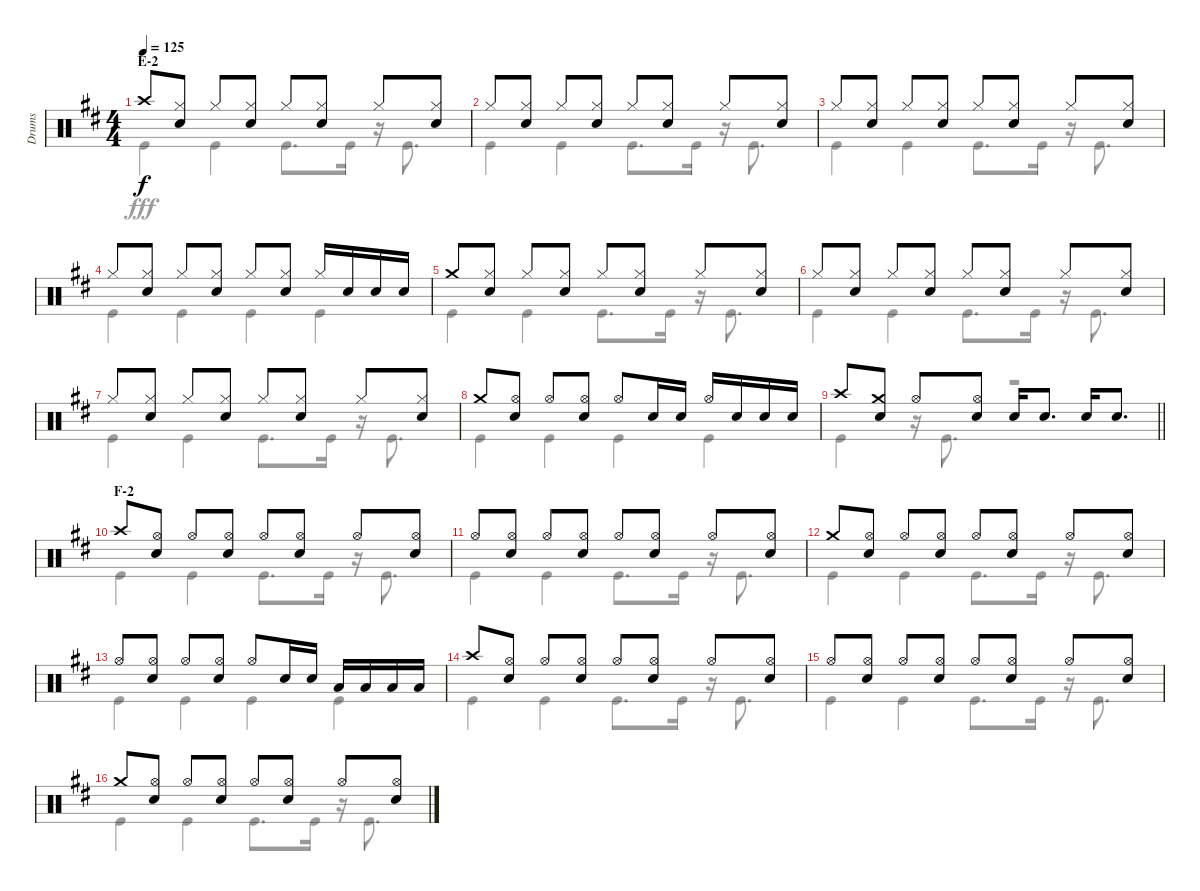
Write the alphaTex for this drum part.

\track ("Drums" "Drums") {instrument percussion}
\staff {score}
\articulation defaults
\voice
\ts (4 4)
\section ("" "E-2")
\tempo 125
\clef neutral
\ks d "Crash high (hit)".8{dy f}
("Hi-Hat (closed)" "Snare (hit) 2").8 "Hi-Hat (closed)".8 ("Hi-Hat (closed)" "Snare (hit) 2").8 "Hi-Hat (closed)".8 ("Hi-Hat (closed)" "Snare (hit) 2").8 "Hi-Hat (closed)".8 ("Hi-Hat (closed)" "Snare (hit) 2").8 |
"Hi-Hat (closed)".8 ("Hi-Hat (closed)" "Snare (hit) 2").8 "Hi-Hat (closed)".8 ("Hi-Hat (closed)" "Snare (hit) 2").8 "Hi-Hat (closed)".8 ("Hi-Hat (closed)" "Snare (hit) 2").8 "Hi-Hat (closed)".8 ("Hi-Hat (closed)" "Snare (hit) 2").8 |
"Hi-Hat (closed)".8 ("Hi-Hat (closed)" "Snare (hit) 2").8 "Hi-Hat (closed)".8 ("Hi-Hat (closed)" "Snare (hit) 2").8 "Hi-Hat (closed)".8 ("Hi-Hat (closed)" "Snare (hit) 2").8 "Hi-Hat (closed)".8 ("Hi-Hat (closed)" "Snare (hit) 2").8 |
"Hi-Hat (closed)".8 ("Hi-Hat (closed)" "Snare (hit) 2").8 "Hi-Hat (closed)".8 ("Hi-Hat (closed)" "Snare (hit) 2").8 "Hi-Hat (closed)".8 ("Hi-Hat (closed)" "Snare (hit) 2").8 "Hi-Hat (closed)".16 "Snare (hit) 2".16 "Snare (hit) 2".16 "Snare (hit) 2".16 |
"Crash medium (hit)".8 ("Hi-Hat (closed)" "Snare (hit) 2").8 "Hi-Hat (closed)".8 ("Hi-Hat (closed)" "Snare (hit) 2").8 "Hi-Hat (closed)".8 ("Hi-Hat (closed)" "Snare (hit) 2").8 "Hi-Hat (closed)".8 ("Hi-Hat (closed)" "Snare (hit) 2").8 |
"Hi-Hat (closed)".8 ("Hi-Hat (closed)" "Snare (hit) 2").8 "Hi-Hat (closed)".8 ("Hi-Hat (closed)" "Snare (hit) 2").8 "Hi-Hat (closed)".8 ("Hi-Hat (closed)" "Snare (hit) 2").8 "Hi-Hat (closed)".8 ("Hi-Hat (closed)" "Snare (hit) 2").8 |
"Hi-Hat (closed)".8 ("Hi-Hat (closed)" "Snare (hit) 2").8 "Hi-Hat (closed)".8 ("Hi-Hat (closed)" "Snare (hit) 2").8 "Hi-Hat (closed)".8 ("Hi-Hat (closed)" "Snare (hit) 2").8 "Hi-Hat (closed)".8 ("Hi-Hat (closed)" "Snare (hit) 2").8 |
"Crash medium (hit)".8 ("Hi-Hat (open)" "Snare (hit) 2").8 "Hi-Hat (open)".8 ("Hi-Hat (open)" "Snare (hit) 2").8 "Hi-Hat (open)".8 "Snare (hit) 2".16 "Snare (hit) 2".16 "Hi-Hat (open)".16 "Snare (hit) 2".16 "Snare (hit) 2".16 "Snare (hit) 2".16 |
\barLineRight lightlight "Crash high (hit)".8
("Crash medium (hit)" "Snare (hit) 2").8 "Hi-Hat (open)".8 ("Hi-Hat (open)" "Snare (hit) 2").8 "Snare (hit) 2".16 "Snare (hit) 2".8{d} "Snare (hit) 2".16 "Snare (hit) 2".8{d} |
\section ("" "F-2")
"Crash high (hit)".8 ("Hi-Hat (open)" "Snare (hit) 2").8 "Hi-Hat (open)".8 ("Hi-Hat (open)" "Snare (hit) 2").8 "Hi-Hat (open)".8 ("Hi-Hat (open)" "Snare (hit) 2").8 "Hi-Hat (open)".8 ("Hi-Hat (open)" "Snare (hit) 2").8 |
"Hi-Hat (open)".8 ("Hi-Hat (open)" "Snare (hit) 2").8 "Hi-Hat (open)".8 ("Hi-Hat (open)" "Snare (hit) 2").8 "Hi-Hat (open)".8 ("Hi-Hat (open)" "Snare (hit) 2").8 "Hi-Hat (open)".8 ("Hi-Hat (open)" "Snare (hit) 2").8 |
"Crash medium (hit)".8 ("Hi-Hat (open)" "Snare (hit) 2").8 "Hi-Hat (open)".8 ("Hi-Hat (open)" "Snare (hit) 2").8 "Hi-Hat (open)".8 ("Hi-Hat (open)" "Snare (hit) 2").8 "Hi-Hat (open)".8 ("Hi-Hat (open)" "Snare (hit) 2").8 |
"Hi-Hat (open)".8 ("Hi-Hat (open)" "Snare (hit) 2").8 "Hi-Hat (open)".8 ("Hi-Hat (open)" "Snare (hit) 2").8 "Hi-Hat (open)".8 "Snare (hit) 2".16 "Snare (hit) 2".16 "Low Tom (hit)".16 "Low Tom (hit)".16 "Low Tom (hit)".16 "Low Tom (hit)".16 |
"Crash high (hit)".8 ("Hi-Hat (open)" "Snare (hit) 2").8 "Hi-Hat (open)".8 ("Hi-Hat (open)" "Snare (hit) 2").8 "Hi-Hat (open)".8 ("Hi-Hat (open)" "Snare (hit) 2").8 "Hi-Hat (open)".8 ("Hi-Hat (open)" "Snare (hit) 2").8 |
"Hi-Hat (open)".8 ("Hi-Hat (open)" "Snare (hit) 2").8 "Hi-Hat (open)".8 ("Hi-Hat (open)" "Snare (hit) 2").8 "Hi-Hat (open)".8 ("Hi-Hat (open)" "Snare (hit) 2").8 "Hi-Hat (open)".8 ("Hi-Hat (open)" "Snare (hit) 2").8 |
"Crash medium (hit)".8 ("Hi-Hat (open)" "Snare (hit) 2").8 "Hi-Hat (open)".8 ("Hi-Hat (open)" "Snare (hit) 2").8 "Hi-Hat (open)".8 ("Hi-Hat (open)" "Snare (hit) 2").8 "Hi-Hat (open)".8 ("Hi-Hat (open)" "Snare (hit) 2").8
\voice
\clef neutral
\ottava regular
\simile none
\ks d "Kick (hit)".4{dy fff} "Kick (hit)".4 "Kick (hit)".8{d} "Kick (hit)".16
r.16 "Kick (hit)".8{d} |
"Kick (hit)".4 "Kick (hit)".4 "Kick (hit)".8{d} "Kick (hit)".16 r.16 "Kick (hit)".8{d} |
"Kick (hit)".4 "Kick (hit)".4 "Kick (hit)".8{d} "Kick (hit)".16 r.16 "Kick (hit)".8{d} |
"Kick (hit)".4 "Kick (hit)".4 "Kick (hit)".4 "Kick (hit)".4 |
"Kick (hit)".4 "Kick (hit)".4 "Kick (hit)".8{d} "Kick (hit)".16 r.16 "Kick (hit)".8{d} |
"Kick (hit)".4 "Kick (hit)".4 "Kick (hit)".8{d} "Kick (hit)".16 r.16 "Kick (hit)".8{d} |
"Kick (hit)".4 "Kick (hit)".4 "Kick (hit)".8{d} "Kick (hit)".16 r.16 "Kick (hit)".8{d} |
"Kick (hit)".4 "Kick (hit)".4 "Kick (hit)".4 "Kick (hit)".4 |
\barLineRight lightlight "Kick (hit)".4
r.16 "Kick (hit)".8{d} r.2 |
"Kick (hit)".4 "Kick (hit)".4 "Kick (hit)".8{d} "Kick (hit)".16 r.16 "Kick (hit)".8{d} |
"Kick (hit)".4 "Kick (hit)".4 "Kick (hit)".8{d} "Kick (hit)".16 r.16 "Kick (hit)".8{d} |
"Kick (hit)".4 "Kick (hit)".4 "Kick (hit)".8{d} "Kick (hit)".16 r.16 "Kick (hit)".8{d} |
"Kick (hit)".4 "Kick (hit)".4 "Kick (hit)".4 "Kick (hit)".4 |
"Kick (hit)".4 "Kick (hit)".4 "Kick (hit)".8{d} "Kick (hit)".16 r.16 "Kick (hit)".8{d} |
"Kick (hit)".4 "Kick (hit)".4 "Kick (hit)".8{d} "Kick (hit)".16 r.16 "Kick (hit)".8{d} |
"Kick (hit)".4 "Kick (hit)".4 "Kick (hit)".8{d} "Kick (hit)".16 r.16 "Kick (hit)".8{d}
